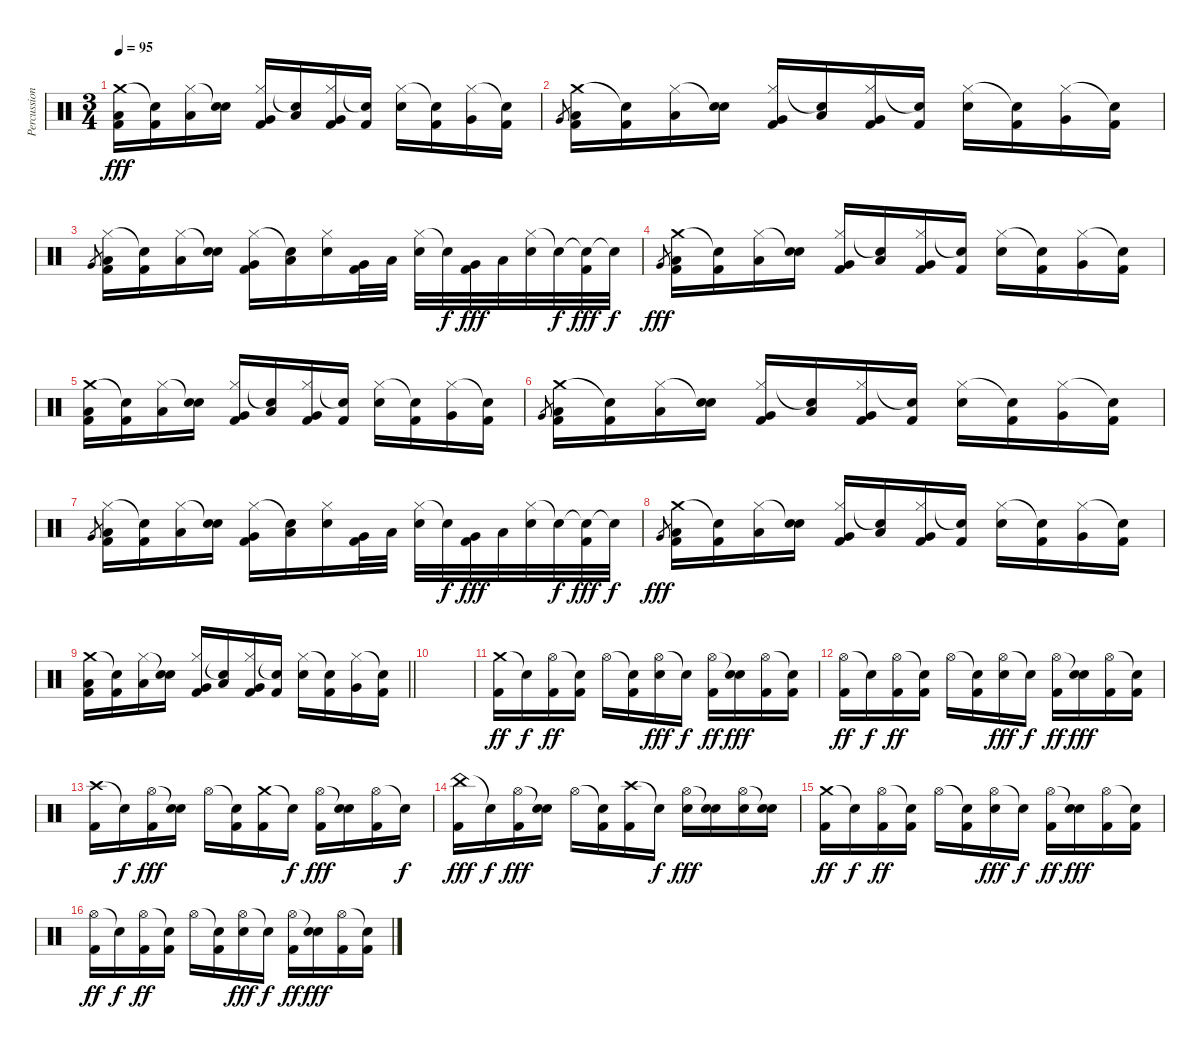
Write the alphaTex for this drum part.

\track ("Percussioni" "Percussion") {instrument percussion}
\staff {score}
\articulation defaults
\ts (3 4)
\tempo 95
\clef neutral
\ks c
("Crash medium (hit)" "Low Tom (hit)" "Kick (hit) 2").16{dy fff} ("Snare (hit)"{t} "Kick (hit) 2").16 ("Hi-Hat (closed)" "Low Tom (hit)").16 ("Snare (hit)"{t} "Electric Snare (hit)").16 ("Hi-Hat (closed)" "Very Low Tom (hit)" "Kick (hit) 2").16 ("Snare (hit)"{t} "Low Tom (hit)").16 ("Hi-Hat (closed)" "Very Low Tom (hit)" "Kick (hit) 2").16 ("Snare (hit)"{t} "Kick (hit) 2").16 ("Hi-Hat (closed)" "Electric Snare (hit)").16 ("Snare (hit)"{t} "Kick (hit) 2").16 ("Hi-Hat (closed)" "Very Low Tom (hit)").16 ("Snare (hit)"{t} "Kick (hit) 2").16 |
"Very Low Tom (hit)".8{gr} ("Crash medium (hit)" "Low Tom (hit)" "Kick (hit) 2").16 ("Snare (hit)"{t} "Kick (hit) 2").16 ("Hi-Hat (closed)" "Low Tom (hit)").16 ("Snare (hit)"{t} "Electric Snare (hit)").16 ("Hi-Hat (closed)" "Very Low Tom (hit)" "Kick (hit) 2").16 ("Snare (hit)"{t} "Low Tom (hit)").16 ("Hi-Hat (closed)" "Very Low Tom (hit)" "Kick (hit) 2").16 ("Snare (hit)"{t} "Kick (hit) 2").16 ("Hi-Hat (closed)" "Electric Snare (hit)").16 ("Snare (hit)"{t} "Kick (hit) 2").16 ("Hi-Hat (closed)" "Very Low Tom (hit)").16 ("Snare (hit)"{t} "Kick (hit) 2").16 |
"Very Low Tom (hit)".8{gr} ("Hi-Hat (closed)" "Low Tom (hit)" "Kick (hit) 2").16 ("Snare (hit)"{t} "Kick (hit) 2").16 ("Hi-Hat (closed)" "Low Tom (hit)").16 ("Snare (hit)"{t} "Electric Snare (hit)").16 ("Hi-Hat (closed)" "Very Low Tom (hit)" "Kick (hit) 2").16 ("Snare (hit)"{t} "Low Tom (hit)").16 ("Hi-Hat (closed)" "Electric Snare (hit)").16 ("Very Low Tom (hit)" "Kick (hit) 2").32 "Low Tom (hit)".32 ("Hi-Hat (closed)" "Electric Snare (hit)").32 "Snare (hit)"{t}.32{dy f} ("Very Low Tom (hit)" "Kick (hit) 2").32{dy fff} "Low Tom (hit)".32 ("Hi-Hat (closed)" "Electric Snare (hit)").32 "Snare (hit)"{t}.32{dy f} ("Snare (hit)"{t} "Kick (hit) 2").32{dy fff} "Snare (hit)"{t}.32{dy f} |
"Very Low Tom (hit)".8{gr dy fff} ("Crash medium (hit)" "Low Tom (hit)" "Kick (hit) 2").16 ("Snare (hit)"{t} "Kick (hit) 2").16 ("Hi-Hat (closed)" "Low Tom (hit)").16 ("Snare (hit)"{t} "Electric Snare (hit)").16 ("Hi-Hat (closed)" "Very Low Tom (hit)" "Kick (hit) 2").16 ("Snare (hit)"{t} "Low Tom (hit)").16 ("Hi-Hat (closed)" "Very Low Tom (hit)" "Kick (hit) 2").16 ("Snare (hit)"{t} "Kick (hit) 2").16 ("Hi-Hat (closed)" "Electric Snare (hit)").16 ("Snare (hit)"{t} "Kick (hit) 2").16 ("Hi-Hat (closed)" "Very Low Tom (hit)").16 ("Snare (hit)"{t} "Kick (hit) 2").16 |
("Crash medium (hit)" "Low Tom (hit)" "Kick (hit) 2").16 ("Snare (hit)"{t} "Kick (hit) 2").16 ("Hi-Hat (closed)" "Low Tom (hit)").16 ("Snare (hit)"{t} "Electric Snare (hit)").16 ("Hi-Hat (closed)" "Very Low Tom (hit)" "Kick (hit) 2").16 ("Snare (hit)"{t} "Low Tom (hit)").16 ("Hi-Hat (closed)" "Very Low Tom (hit)" "Kick (hit) 2").16 ("Snare (hit)"{t} "Kick (hit) 2").16 ("Hi-Hat (closed)" "Electric Snare (hit)").16 ("Snare (hit)"{t} "Kick (hit) 2").16 ("Hi-Hat (closed)" "Very Low Tom (hit)").16 ("Snare (hit)"{t} "Kick (hit) 2").16 |
"Very Low Tom (hit)".8{gr} ("Crash medium (hit)" "Low Tom (hit)" "Kick (hit) 2").16 ("Snare (hit)"{t} "Kick (hit) 2").16 ("Hi-Hat (closed)" "Low Tom (hit)").16 ("Snare (hit)"{t} "Electric Snare (hit)").16 ("Hi-Hat (closed)" "Very Low Tom (hit)" "Kick (hit) 2").16 ("Snare (hit)"{t} "Low Tom (hit)").16 ("Hi-Hat (closed)" "Very Low Tom (hit)" "Kick (hit) 2").16 ("Snare (hit)"{t} "Kick (hit) 2").16 ("Hi-Hat (closed)" "Electric Snare (hit)").16 ("Snare (hit)"{t} "Kick (hit) 2").16 ("Hi-Hat (closed)" "Very Low Tom (hit)").16 ("Snare (hit)"{t} "Kick (hit) 2").16 |
"Very Low Tom (hit)".8{gr} ("Hi-Hat (closed)" "Low Tom (hit)" "Kick (hit) 2").16 ("Snare (hit)"{t} "Kick (hit) 2").16 ("Hi-Hat (closed)" "Low Tom (hit)").16 ("Snare (hit)"{t} "Electric Snare (hit)").16 ("Hi-Hat (closed)" "Very Low Tom (hit)" "Kick (hit) 2").16 ("Snare (hit)"{t} "Low Tom (hit)").16 ("Hi-Hat (closed)" "Electric Snare (hit)").16 ("Very Low Tom (hit)" "Kick (hit) 2").32 "Low Tom (hit)".32 ("Hi-Hat (closed)" "Electric Snare (hit)").32 "Snare (hit)"{t}.32{dy f} ("Very Low Tom (hit)" "Kick (hit) 2").32{dy fff} "Low Tom (hit)".32 ("Hi-Hat (closed)" "Electric Snare (hit)").32 "Snare (hit)"{t}.32{dy f} ("Snare (hit)"{t} "Kick (hit) 2").32{dy fff} "Snare (hit)"{t}.32{dy f} |
"Very Low Tom (hit)".8{gr dy fff} ("Crash medium (hit)" "Low Tom (hit)" "Kick (hit) 2").16 ("Snare (hit)"{t} "Kick (hit) 2").16 ("Hi-Hat (closed)" "Low Tom (hit)").16 ("Snare (hit)"{t} "Electric Snare (hit)").16 ("Hi-Hat (closed)" "Very Low Tom (hit)" "Kick (hit) 2").16 ("Snare (hit)"{t} "Low Tom (hit)").16 ("Hi-Hat (closed)" "Very Low Tom (hit)" "Kick (hit) 2").16 ("Snare (hit)"{t} "Kick (hit) 2").16 ("Hi-Hat (closed)" "Electric Snare (hit)").16 ("Snare (hit)"{t} "Kick (hit) 2").16 ("Hi-Hat (closed)" "Very Low Tom (hit)").16 ("Snare (hit)"{t} "Kick (hit) 2").16 |
\barLineRight lightlight
("Crash medium (hit)" "Low Tom (hit)" "Kick (hit) 2").16 ("Snare (hit)"{t} "Kick (hit) 2").16 ("Hi-Hat (closed)" "Low Tom (hit)").16 ("Snare (hit)"{t} "Electric Snare (hit)").16 ("Hi-Hat (closed)" "Very Low Tom (hit)" "Kick (hit) 2").16 ("Snare (hit)"{t} "Low Tom (hit)").16 ("Hi-Hat (closed)" "Very Low Tom (hit)" "Kick (hit) 2").16 ("Snare (hit)"{t} "Kick (hit) 2").16 ("Hi-Hat (closed)" "Electric Snare (hit)").16 ("Snare (hit)"{t} "Kick (hit) 2").16 ("Hi-Hat (closed)" "Very Low Tom (hit)").16 ("Snare (hit)"{t} "Kick (hit) 2").16 |
|
("Crash medium (hit)" "Kick (hit) 2").16{dy ff} "Snare (hit)"{t}.16{dy f} ("Hi-Hat (open)" "Kick (hit) 2").16{dy ff} ("Snare (hit)"{t} "Kick (hit) 2").16 "Hi-Hat (open)".16 ("Snare (hit)"{t} "Kick (hit) 2").16 ("Hi-Hat (open)" "Electric Snare (hit)").16{dy fff} "Snare (hit)"{t}.16{dy f} ("Hi-Hat (open)" "Kick (hit) 2").16{dy ff} ("Snare (hit)"{t} "Electric Snare (hit)").16{dy fff} ("Hi-Hat (open)" "Kick (hit) 2").16 ("Snare (hit)"{t} "Kick (hit) 2").16 |
("Hi-Hat (open)" "Kick (hit) 2").16{dy ff} "Snare (hit)"{t}.16{dy f} ("Hi-Hat (open)" "Kick (hit) 2").16{dy ff} ("Snare (hit)"{t} "Kick (hit) 2").16 "Hi-Hat (open)".16 ("Snare (hit)"{t} "Kick (hit) 2").16 ("Hi-Hat (open)" "Electric Snare (hit)").16{dy fff} "Snare (hit)"{t}.16{dy f} ("Hi-Hat (open)" "Kick (hit) 2").16{dy ff} ("Snare (hit)"{t} "Electric Snare (hit)").16{dy fff} ("Hi-Hat (open)" "Kick (hit) 2").16 ("Snare (hit)"{t} "Kick (hit) 2").16 |
("Crash high (hit)" "Kick (hit) 2").16 "Snare (hit)"{t}.16{dy f} ("Hi-Hat (open)" "Kick (hit) 2").16{dy fff} ("Snare (hit)"{t} "Electric Snare (hit)").16 "Hi-Hat (open)".16 ("Snare (hit)"{t} "Kick (hit) 2").16 ("Crash medium (hit)" "Kick (hit) 2").16 "Snare (hit)"{t}.16{dy f} ("Hi-Hat (open)" "Kick (hit) 2").16{dy fff} ("Snare (hit)"{t} "Electric Snare (hit)").16 ("Hi-Hat (open)" "Kick (hit) 2").16 "Snare (hit)"{t}.16{dy f} |
("China (hit)" "Kick (hit) 2").16{dy fff} "Snare (hit)"{t}.16{dy f} ("Hi-Hat (open)" "Kick (hit) 2").16{dy fff} ("Snare (hit)"{t} "Electric Snare (hit)").16 "Hi-Hat (open)".16 ("Snare (hit)"{t} "Kick (hit) 2").16 ("Crash high (hit)" "Kick (hit) 2").16 "Snare (hit)"{t}.16{dy f} ("Hi-Hat (open)" "Electric Snare (hit)").16{dy fff} ("Snare (hit)"{t} "Electric Snare (hit)").16 ("Hi-Hat (open)" "Electric Snare (hit)").16 ("Snare (hit)"{t} "Electric Snare (hit)").16 |
("Crash medium (hit)" "Kick (hit) 2").16{dy ff} "Snare (hit)"{t}.16{dy f} ("Hi-Hat (open)" "Kick (hit) 2").16{dy ff} ("Snare (hit)"{t} "Kick (hit) 2").16 "Hi-Hat (open)".16 ("Snare (hit)"{t} "Kick (hit) 2").16 ("Hi-Hat (open)" "Electric Snare (hit)").16{dy fff} "Snare (hit)"{t}.16{dy f} ("Hi-Hat (open)" "Kick (hit) 2").16{dy ff} ("Snare (hit)"{t} "Electric Snare (hit)").16{dy fff} ("Hi-Hat (open)" "Kick (hit) 2").16 ("Snare (hit)"{t} "Kick (hit) 2").16 |
("Hi-Hat (open)" "Kick (hit) 2").16{dy ff} "Snare (hit)"{t}.16{dy f} ("Hi-Hat (open)" "Kick (hit) 2").16{dy ff} ("Snare (hit)"{t} "Kick (hit) 2").16 "Hi-Hat (open)".16 ("Snare (hit)"{t} "Kick (hit) 2").16 ("Hi-Hat (open)" "Electric Snare (hit)").16{dy fff} "Snare (hit)"{t}.16{dy f} ("Hi-Hat (open)" "Kick (hit) 2").16{dy ff} ("Snare (hit)"{t} "Electric Snare (hit)").16{dy fff} ("Hi-Hat (open)" "Kick (hit) 2").16 ("Snare (hit)"{t} "Kick (hit) 2").16
